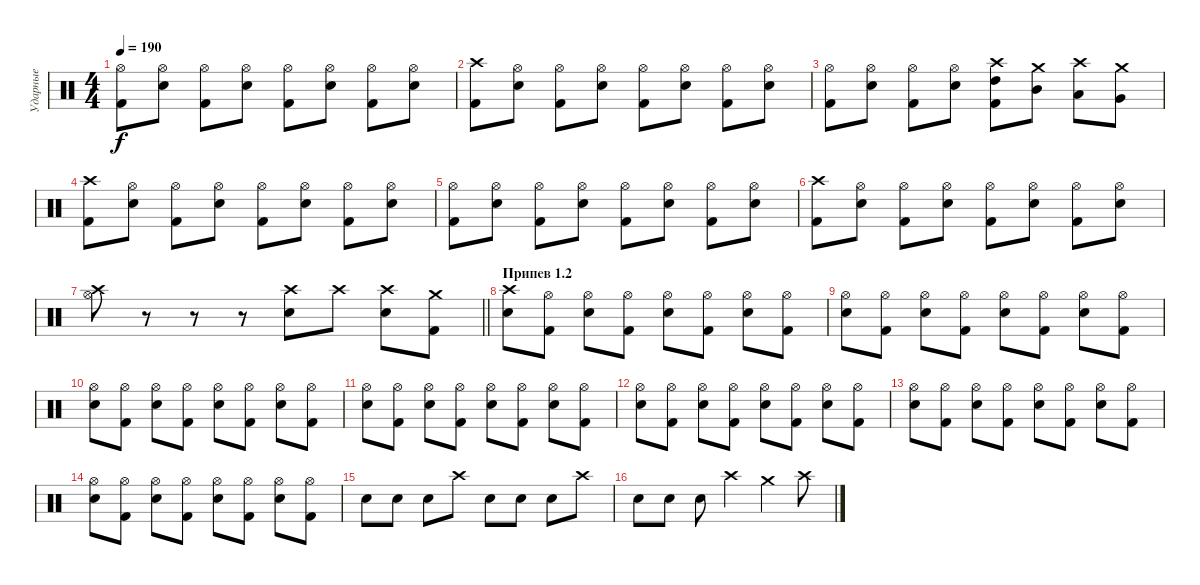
\track ("Ударные" "Ударные") {instrument percussion}
\staff {score}
\articulation defaults
\ts (4 4)
\tempo 190
\clef neutral
\ks c
("Hi-Hat (open)" "Kick (hit) 2").8{dy f} ("Hi-Hat (open)" "Snare (hit) 2").8 ("Hi-Hat (open)" "Kick (hit) 2").8 ("Hi-Hat (open)" "Snare (hit) 2").8 ("Hi-Hat (open)" "Kick (hit) 2").8 ("Hi-Hat (open)" "Snare (hit) 2").8 ("Hi-Hat (open)" "Kick (hit) 2").8 ("Hi-Hat (open)" "Snare (hit) 2").8 |
("Crash high (hit)" "Kick (hit) 2").8 ("Hi-Hat (open)" "Snare (hit) 2").8 ("Hi-Hat (open)" "Kick (hit) 2").8 ("Hi-Hat (open)" "Snare (hit) 2").8 ("Hi-Hat (open)" "Kick (hit) 2").8 ("Hi-Hat (open)" "Snare (hit) 2").8 ("Hi-Hat (open)" "Kick (hit) 2").8 ("Hi-Hat (open)" "Snare (hit) 2").8 |
("Hi-Hat (open)" "Kick (hit) 2").8 ("Hi-Hat (open)" "Snare (hit) 2").8 ("Hi-Hat (open)" "Kick (hit) 2").8 ("Hi-Hat (open)" "Snare (hit) 2").8 ("Crash high (hit)" "High Tom (hit)" "Kick (hit) 2").8 ("Crash medium (hit)" "Mid Tom (hit)").8 ("Crash high (hit)" "Low Tom (hit)").8 ("Crash medium (hit)" "Very Low Tom (hit)").8 |
("Crash high (hit)" "Kick (hit) 2").8 ("Hi-Hat (open)" "Snare (hit) 2").8 ("Hi-Hat (open)" "Kick (hit) 2").8 ("Hi-Hat (open)" "Snare (hit) 2").8 ("Hi-Hat (open)" "Kick (hit) 2").8 ("Hi-Hat (open)" "Snare (hit) 2").8 ("Hi-Hat (open)" "Kick (hit) 2").8 ("Hi-Hat (open)" "Snare (hit) 2").8 |
("Hi-Hat (open)" "Kick (hit) 2").8 ("Hi-Hat (open)" "Snare (hit) 2").8 ("Hi-Hat (open)" "Kick (hit) 2").8 ("Hi-Hat (open)" "Snare (hit) 2").8 ("Hi-Hat (open)" "Kick (hit) 2").8 ("Hi-Hat (open)" "Snare (hit) 2").8 ("Hi-Hat (open)" "Kick (hit) 2").8 ("Hi-Hat (open)" "Snare (hit) 2").8 |
("Crash high (hit)" "Kick (hit) 2").8 ("Hi-Hat (open)" "Snare (hit) 2").8 ("Hi-Hat (open)" "Kick (hit) 2").8 ("Hi-Hat (open)" "Snare (hit) 2").8 ("Hi-Hat (open)" "Kick (hit) 2").8 ("Hi-Hat (open)" "Snare (hit) 2").8 ("Hi-Hat (open)" "Kick (hit) 2").8 ("Hi-Hat (open)" "Snare (hit) 2").8 |
\barLineRight lightlight
("Hi-Hat (open)" "Crash high (hit)").8 r.8 r.8 r.8 ("Snare (hit) 2" "Crash high (hit)").8 "Crash high (hit)".8 ("Snare (hit) 2" "Crash high (hit)").8 ("Kick (hit) 2" "Crash medium (hit)").8 |
\section ("" "Припев 1.2")
("Crash high (hit)" "Snare (hit) 2").8 ("Hi-Hat (open)" "Kick (hit) 2").8 ("Hi-Hat (open)" "Snare (hit) 2").8 ("Hi-Hat (open)" "Kick (hit) 2").8 ("Hi-Hat (open)" "Snare (hit) 2").8 ("Hi-Hat (open)" "Kick (hit) 2").8 ("Hi-Hat (open)" "Snare (hit) 2").8 ("Hi-Hat (open)" "Kick (hit) 2").8 |
("Hi-Hat (open)" "Snare (hit) 2").8 ("Hi-Hat (open)" "Kick (hit) 2").8 ("Hi-Hat (open)" "Snare (hit) 2").8 ("Hi-Hat (open)" "Kick (hit) 2").8 ("Hi-Hat (open)" "Snare (hit) 2").8 ("Hi-Hat (open)" "Kick (hit) 2").8 ("Hi-Hat (open)" "Snare (hit) 2").8 ("Hi-Hat (open)" "Kick (hit) 2").8 |
("Hi-Hat (open)" "Snare (hit) 2").8 ("Hi-Hat (open)" "Kick (hit) 2").8 ("Hi-Hat (open)" "Snare (hit) 2").8 ("Hi-Hat (open)" "Kick (hit) 2").8 ("Hi-Hat (open)" "Snare (hit) 2").8 ("Hi-Hat (open)" "Kick (hit) 2").8 ("Hi-Hat (open)" "Snare (hit) 2").8 ("Hi-Hat (open)" "Kick (hit) 2").8 |
("Hi-Hat (open)" "Snare (hit) 2").8 ("Hi-Hat (open)" "Kick (hit) 2").8 ("Hi-Hat (open)" "Snare (hit) 2").8 ("Hi-Hat (open)" "Kick (hit) 2").8 ("Hi-Hat (open)" "Snare (hit) 2").8 ("Hi-Hat (open)" "Kick (hit) 2").8 ("Hi-Hat (open)" "Snare (hit) 2").8 ("Hi-Hat (open)" "Kick (hit) 2").8 |
("Hi-Hat (open)" "Snare (hit) 2").8 ("Hi-Hat (open)" "Kick (hit) 2").8 ("Hi-Hat (open)" "Snare (hit) 2").8 ("Hi-Hat (open)" "Kick (hit) 2").8 ("Hi-Hat (open)" "Snare (hit) 2").8 ("Hi-Hat (open)" "Kick (hit) 2").8 ("Hi-Hat (open)" "Snare (hit) 2").8 ("Hi-Hat (open)" "Kick (hit) 2").8 |
("Hi-Hat (open)" "Snare (hit) 2").8 ("Hi-Hat (open)" "Kick (hit) 2").8 ("Hi-Hat (open)" "Snare (hit) 2").8 ("Hi-Hat (open)" "Kick (hit) 2").8 ("Hi-Hat (open)" "Snare (hit) 2").8 ("Hi-Hat (open)" "Kick (hit) 2").8 ("Hi-Hat (open)" "Snare (hit) 2").8 ("Hi-Hat (open)" "Kick (hit) 2").8 |
("Hi-Hat (open)" "Snare (hit) 2").8 ("Hi-Hat (open)" "Kick (hit) 2").8 ("Hi-Hat (open)" "Snare (hit) 2").8 ("Hi-Hat (open)" "Kick (hit) 2").8 ("Hi-Hat (open)" "Snare (hit) 2").8 ("Hi-Hat (open)" "Kick (hit) 2").8 ("Hi-Hat (open)" "Snare (hit) 2").8 ("Hi-Hat (open)" "Kick (hit) 2").8 |
"Electric Snare (hit)".8 "Electric Snare (hit)".8 "Electric Snare (hit)".8 "Crash high (hit)".8 "Electric Snare (hit)".8 "Electric Snare (hit)".8 "Electric Snare (hit)".8 "Crash high (hit)".8 |
"Electric Snare (hit)".8 "Electric Snare (hit)".8 "Electric Snare (hit)".8 "Crash high (hit)".4 "Crash medium (hit)".4 "Crash high (hit)".8
